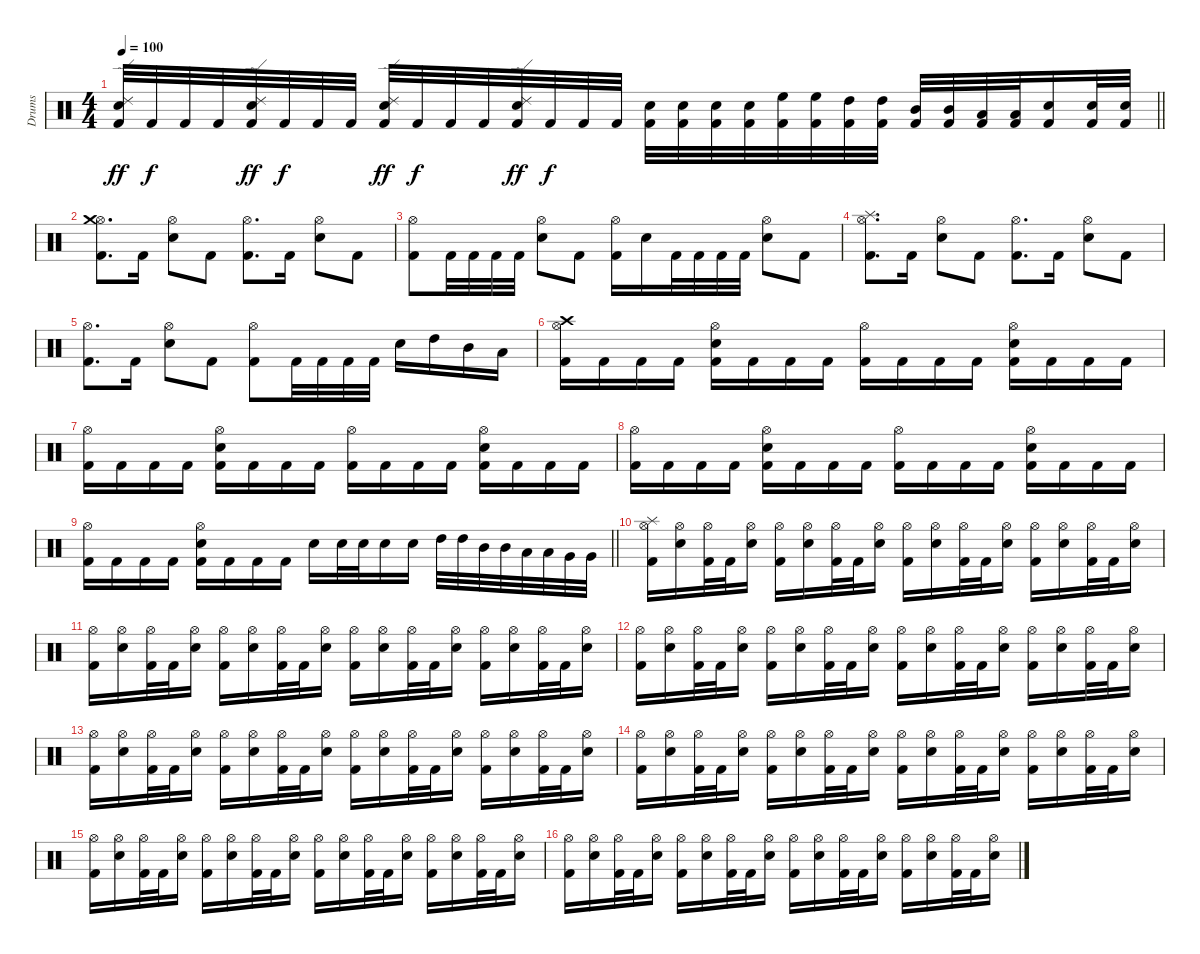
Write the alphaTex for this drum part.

\track ("Drums" "Drums") {instrument percussion}
\staff {score}
\articulation defaults
\ts (4 4)
\tempo 100
\clef neutral
\barLineRight lightlight
\ks c
("Kick (hit) 2" "Electric Snare (hit)" "Ride (edge) 2").32{dy ff} "Kick (hit) 2".32{dy f} "Kick (hit) 2".32 "Kick (hit) 2".32 ("Kick (hit) 2" "Electric Snare (hit)" "Ride (edge) 2").32{dy ff} "Kick (hit) 2".32{dy f} "Kick (hit) 2".32 "Kick (hit) 2".32 ("Kick (hit) 2" "Electric Snare (hit)" "Ride (edge) 2").32{dy ff} "Kick (hit) 2".32{dy f} "Kick (hit) 2".32 "Kick (hit) 2".32 ("Kick (hit) 2" "Electric Snare (hit)" "Ride (edge) 2").32{dy ff} "Kick (hit) 2".32{dy f} "Kick (hit) 2".32 "Kick (hit) 2".32 ("Kick (hit) 2" "Electric Snare (hit)").32 ("Kick (hit) 2" "Electric Snare (hit)").32 ("Kick (hit) 2" "Electric Snare (hit)").32 ("Kick (hit) 2" "Electric Snare (hit)").32 ("Kick (hit) 2" "High Floor Tom (hit)").32 ("Kick (hit) 2" "High Floor Tom (hit)").32 ("Kick (hit) 2" "High Tom (hit)").32 ("Kick (hit) 2" "High Tom (hit)").32 ("Kick (hit) 2" "Mid Tom (hit)").32 ("Kick (hit) 2" "Mid Tom (hit)").32 ("Kick (hit) 2" "Low Tom (hit)").32 ("Kick (hit) 2" "Low Tom (hit)").32 ("Kick (hit) 2" "Electric Snare (hit)").16 ("Kick (hit) 2" "Electric Snare (hit)").32 ("Kick (hit) 2" "Electric Snare (hit)").32 |
\section ("" "")
("Kick (hit) 2" "Hi-Hat (open)" "Crash medium (hit)").8{d} "Kick (hit) 2".16 ("Electric Snare (hit)" "Hi-Hat (open)").8 "Kick (hit) 2".8 ("Kick (hit) 2" "Hi-Hat (open)").8{d} "Kick (hit) 2".16 ("Electric Snare (hit)" "Hi-Hat (open)").8 "Kick (hit) 2".8 |
("Kick (hit) 2" "Hi-Hat (open)").8 "Kick (hit) 2".32 "Kick (hit) 2".32 "Kick (hit) 2".32 "Kick (hit) 2".32 ("Electric Snare (hit)" "Hi-Hat (open)").8 "Kick (hit) 2".8 ("Kick (hit) 2" "Hi-Hat (open)").16 "Electric Snare (hit)".16 "Kick (hit) 2".32 "Kick (hit) 2".32 "Kick (hit) 2".32 "Kick (hit) 2".32 ("Electric Snare (hit)" "Hi-Hat (open)").8 "Kick (hit) 2".8 |
("Kick (hit) 2" "Hi-Hat (open)" "Splash (hit)").8{d} "Kick (hit) 2".16 ("Electric Snare (hit)" "Hi-Hat (open)").8 "Kick (hit) 2".8 ("Kick (hit) 2" "Hi-Hat (open)").8{d} "Kick (hit) 2".16 ("Electric Snare (hit)" "Hi-Hat (open)").8 "Kick (hit) 2".8 |
("Kick (hit) 2" "Hi-Hat (open)").8{d} "Kick (hit) 2".16 ("Electric Snare (hit)" "Hi-Hat (open)").8 "Kick (hit) 2".8 ("Kick (hit) 2" "Hi-Hat (open)").8 "Kick (hit) 2".32 "Kick (hit) 2".32 "Kick (hit) 2".32 "Kick (hit) 2".32 "Electric Snare (hit)".16 "High Tom (hit)".16 "Mid Tom (hit)".16 "Low Tom (hit)".16 |
("Kick (hit) 2" "Hi-Hat (open)" "Crash high (hit)").16 "Kick (hit) 2".16 "Kick (hit) 2".16 "Kick (hit) 2".16 ("Kick (hit) 2" "Electric Snare (hit)" "Hi-Hat (open)").16 "Kick (hit) 2".16 "Kick (hit) 2".16 "Kick (hit) 2".16 ("Kick (hit) 2" "Hi-Hat (open)").16 "Kick (hit) 2".16 "Kick (hit) 2".16 "Kick (hit) 2".16 ("Kick (hit) 2" "Electric Snare (hit)" "Hi-Hat (open)").16 "Kick (hit) 2".16 "Kick (hit) 2".16 "Kick (hit) 2".16 |
("Kick (hit) 2" "Hi-Hat (open)").16 "Kick (hit) 2".16 "Kick (hit) 2".16 "Kick (hit) 2".16 ("Kick (hit) 2" "Electric Snare (hit)" "Hi-Hat (open)").16 "Kick (hit) 2".16 "Kick (hit) 2".16 "Kick (hit) 2".16 ("Kick (hit) 2" "Hi-Hat (open)").16 "Kick (hit) 2".16 "Kick (hit) 2".16 "Kick (hit) 2".16 ("Kick (hit) 2" "Electric Snare (hit)" "Hi-Hat (open)").16 "Kick (hit) 2".16 "Kick (hit) 2".16 "Kick (hit) 2".16 |
("Kick (hit) 2" "Hi-Hat (open)").16 "Kick (hit) 2".16 "Kick (hit) 2".16 "Kick (hit) 2".16 ("Kick (hit) 2" "Electric Snare (hit)" "Hi-Hat (open)").16 "Kick (hit) 2".16 "Kick (hit) 2".16 "Kick (hit) 2".16 ("Kick (hit) 2" "Hi-Hat (open)").16 "Kick (hit) 2".16 "Kick (hit) 2".16 "Kick (hit) 2".16 ("Kick (hit) 2" "Electric Snare (hit)" "Hi-Hat (open)").16 "Kick (hit) 2".16 "Kick (hit) 2".16 "Kick (hit) 2".16 |
\barLineRight lightlight
("Kick (hit) 2" "Hi-Hat (open)").16 "Kick (hit) 2".16 "Kick (hit) 2".16 "Kick (hit) 2".16 ("Kick (hit) 2" "Electric Snare (hit)" "Hi-Hat (open)").16 "Kick (hit) 2".16 "Kick (hit) 2".16 "Kick (hit) 2".16 "Electric Snare (hit)".16 "Electric Snare (hit)".32 "Electric Snare (hit)".32 "Electric Snare (hit)".16 "Electric Snare (hit)".16 "High Tom (hit)".32 "High Tom (hit)".32 "Mid Tom (hit)".32 "Mid Tom (hit)".32 "Low Tom (hit)".32 "Low Tom (hit)".32 "Very Low Tom (hit)".32 "Very Low Tom (hit)".32 |
\section ("" "")
("Kick (hit) 2" "Hi-Hat (open)" "Splash (hit)").16 ("Electric Snare (hit)" "Hi-Hat (open)").16 ("Kick (hit) 2" "Hi-Hat (open)").32 "Kick (hit) 2".32 ("Electric Snare (hit)" "Hi-Hat (open)").16 ("Kick (hit) 2" "Hi-Hat (open)").16 ("Electric Snare (hit)" "Hi-Hat (open)").16 ("Kick (hit) 2" "Hi-Hat (open)").32 "Kick (hit) 2".32 ("Electric Snare (hit)" "Hi-Hat (open)").16 ("Kick (hit) 2" "Hi-Hat (open)").16 ("Electric Snare (hit)" "Hi-Hat (open)").16 ("Kick (hit) 2" "Hi-Hat (open)").32 "Kick (hit) 2".32 ("Electric Snare (hit)" "Hi-Hat (open)").16 ("Kick (hit) 2" "Hi-Hat (open)").16 ("Electric Snare (hit)" "Hi-Hat (open)").16 ("Kick (hit) 2" "Hi-Hat (open)").32 "Kick (hit) 2".32 ("Electric Snare (hit)" "Hi-Hat (open)").16 |
("Kick (hit) 2" "Hi-Hat (open)").16 ("Electric Snare (hit)" "Hi-Hat (open)").16 ("Kick (hit) 2" "Hi-Hat (open)").32 "Kick (hit) 2".32 ("Electric Snare (hit)" "Hi-Hat (open)").16 ("Kick (hit) 2" "Hi-Hat (open)").16 ("Electric Snare (hit)" "Hi-Hat (open)").16 ("Kick (hit) 2" "Hi-Hat (open)").32 "Kick (hit) 2".32 ("Electric Snare (hit)" "Hi-Hat (open)").16 ("Kick (hit) 2" "Hi-Hat (open)").16 ("Electric Snare (hit)" "Hi-Hat (open)").16 ("Kick (hit) 2" "Hi-Hat (open)").32 "Kick (hit) 2".32 ("Electric Snare (hit)" "Hi-Hat (open)").16 ("Kick (hit) 2" "Hi-Hat (open)").16 ("Electric Snare (hit)" "Hi-Hat (open)").16 ("Kick (hit) 2" "Hi-Hat (open)").32 "Kick (hit) 2".32 ("Electric Snare (hit)" "Hi-Hat (open)").16 |
("Kick (hit) 2" "Hi-Hat (open)").16 ("Electric Snare (hit)" "Hi-Hat (open)").16 ("Kick (hit) 2" "Hi-Hat (open)").32 "Kick (hit) 2".32 ("Electric Snare (hit)" "Hi-Hat (open)").16 ("Kick (hit) 2" "Hi-Hat (open)").16 ("Electric Snare (hit)" "Hi-Hat (open)").16 ("Kick (hit) 2" "Hi-Hat (open)").32 "Kick (hit) 2".32 ("Electric Snare (hit)" "Hi-Hat (open)").16 ("Kick (hit) 2" "Hi-Hat (open)").16 ("Electric Snare (hit)" "Hi-Hat (open)").16 ("Kick (hit) 2" "Hi-Hat (open)").32 "Kick (hit) 2".32 ("Electric Snare (hit)" "Hi-Hat (open)").16 ("Kick (hit) 2" "Hi-Hat (open)").16 ("Electric Snare (hit)" "Hi-Hat (open)").16 ("Kick (hit) 2" "Hi-Hat (open)").32 "Kick (hit) 2".32 ("Electric Snare (hit)" "Hi-Hat (open)").16 |
("Kick (hit) 2" "Hi-Hat (open)").16 ("Electric Snare (hit)" "Hi-Hat (open)").16 ("Kick (hit) 2" "Hi-Hat (open)").32 "Kick (hit) 2".32 ("Electric Snare (hit)" "Hi-Hat (open)").16 ("Kick (hit) 2" "Hi-Hat (open)").16 ("Electric Snare (hit)" "Hi-Hat (open)").16 ("Kick (hit) 2" "Hi-Hat (open)").32 "Kick (hit) 2".32 ("Electric Snare (hit)" "Hi-Hat (open)").16 ("Kick (hit) 2" "Hi-Hat (open)").16 ("Electric Snare (hit)" "Hi-Hat (open)").16 ("Kick (hit) 2" "Hi-Hat (open)").32 "Kick (hit) 2".32 ("Electric Snare (hit)" "Hi-Hat (open)").16 ("Kick (hit) 2" "Hi-Hat (open)").16 ("Electric Snare (hit)" "Hi-Hat (open)").16 ("Kick (hit) 2" "Hi-Hat (open)").32 "Kick (hit) 2".32 ("Electric Snare (hit)" "Hi-Hat (open)").16 |
("Kick (hit) 2" "Hi-Hat (open)").16 ("Electric Snare (hit)" "Hi-Hat (open)").16 ("Kick (hit) 2" "Hi-Hat (open)").32 "Kick (hit) 2".32 ("Electric Snare (hit)" "Hi-Hat (open)").16 ("Kick (hit) 2" "Hi-Hat (open)").16 ("Electric Snare (hit)" "Hi-Hat (open)").16 ("Kick (hit) 2" "Hi-Hat (open)").32 "Kick (hit) 2".32 ("Electric Snare (hit)" "Hi-Hat (open)").16 ("Kick (hit) 2" "Hi-Hat (open)").16 ("Electric Snare (hit)" "Hi-Hat (open)").16 ("Kick (hit) 2" "Hi-Hat (open)").32 "Kick (hit) 2".32 ("Electric Snare (hit)" "Hi-Hat (open)").16 ("Kick (hit) 2" "Hi-Hat (open)").16 ("Electric Snare (hit)" "Hi-Hat (open)").16 ("Kick (hit) 2" "Hi-Hat (open)").32 "Kick (hit) 2".32 ("Electric Snare (hit)" "Hi-Hat (open)").16 |
("Kick (hit) 2" "Hi-Hat (open)").16 ("Electric Snare (hit)" "Hi-Hat (open)").16 ("Kick (hit) 2" "Hi-Hat (open)").32 "Kick (hit) 2".32 ("Electric Snare (hit)" "Hi-Hat (open)").16 ("Kick (hit) 2" "Hi-Hat (open)").16 ("Electric Snare (hit)" "Hi-Hat (open)").16 ("Kick (hit) 2" "Hi-Hat (open)").32 "Kick (hit) 2".32 ("Electric Snare (hit)" "Hi-Hat (open)").16 ("Kick (hit) 2" "Hi-Hat (open)").16 ("Electric Snare (hit)" "Hi-Hat (open)").16 ("Kick (hit) 2" "Hi-Hat (open)").32 "Kick (hit) 2".32 ("Electric Snare (hit)" "Hi-Hat (open)").16 ("Kick (hit) 2" "Hi-Hat (open)").16 ("Electric Snare (hit)" "Hi-Hat (open)").16 ("Kick (hit) 2" "Hi-Hat (open)").32 "Kick (hit) 2".32 ("Electric Snare (hit)" "Hi-Hat (open)").16 |
("Kick (hit) 2" "Hi-Hat (open)").16 ("Electric Snare (hit)" "Hi-Hat (open)").16 ("Kick (hit) 2" "Hi-Hat (open)").32 "Kick (hit) 2".32 ("Electric Snare (hit)" "Hi-Hat (open)").16 ("Kick (hit) 2" "Hi-Hat (open)").16 ("Electric Snare (hit)" "Hi-Hat (open)").16 ("Kick (hit) 2" "Hi-Hat (open)").32 "Kick (hit) 2".32 ("Electric Snare (hit)" "Hi-Hat (open)").16 ("Kick (hit) 2" "Hi-Hat (open)").16 ("Electric Snare (hit)" "Hi-Hat (open)").16 ("Kick (hit) 2" "Hi-Hat (open)").32 "Kick (hit) 2".32 ("Electric Snare (hit)" "Hi-Hat (open)").16 ("Kick (hit) 2" "Hi-Hat (open)").16 ("Electric Snare (hit)" "Hi-Hat (open)").16 ("Kick (hit) 2" "Hi-Hat (open)").32 "Kick (hit) 2".32 ("Electric Snare (hit)" "Hi-Hat (open)").16
